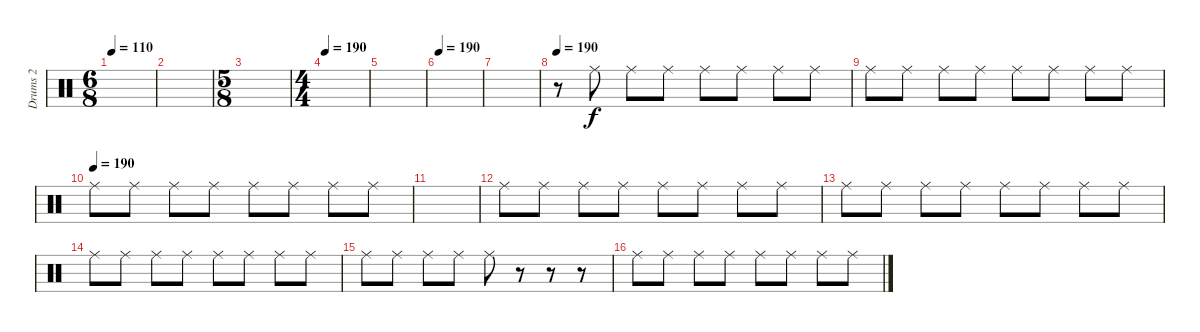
\track ("Drums 2" "Drums 2") {instrument percussion}
\staff {score}
\articulation defaults
\ts (6 8)
\tempo 110
\clef neutral
\ks c
|
|
\ts (5 8)
|
\ts (4 4)
\tempo 190
|
|
\tempo 190
|
|
\tempo 190
r.8 "Ride (middle)".8 "Ride (middle)".8 "Ride (middle)".8 "Ride (middle)".8 "Ride (middle)".8 "Ride (middle)".8 "Ride (middle)".8 |
"Ride (middle)".8 "Ride (middle)".8 "Ride (middle)".8 "Ride (middle)".8 "Ride (middle)".8 "Ride (middle)".8 "Ride (middle)".8 "Ride (middle)".8 |
\tempo (190)
"Ride (middle)".8 "Ride (middle)".8 "Ride (middle)".8 "Ride (middle)".8 "Ride (middle)".8 "Ride (middle)".8 "Ride (middle)".8 "Ride (middle)".8 |
|
"Ride (middle)".8 "Ride (middle)".8 "Ride (middle)".8 "Ride (middle)".8 "Ride (middle)".8 "Ride (middle)".8 "Ride (middle)".8 "Ride (middle)".8 |
"Ride (middle)".8 "Ride (middle)".8 "Ride (middle)".8 "Ride (middle)".8 "Ride (middle)".8 "Ride (middle)".8 "Ride (middle)".8 "Ride (middle)".8 |
"Ride (middle)".8 "Ride (middle)".8 "Ride (middle)".8 "Ride (middle)".8 "Ride (middle)".8 "Ride (middle)".8 "Ride (middle)".8 "Ride (middle)".8 |
"Ride (middle)".8 "Ride (middle)".8 "Ride (middle)".8 "Ride (middle)".8 "Ride (middle)".8 r.8 r.8 r.8 |
"Ride (middle)".8 "Ride (middle)".8 "Ride (middle)".8 "Ride (middle)".8 "Ride (middle)".8 "Ride (middle)".8 "Ride (middle)".8 "Ride (middle)".8
